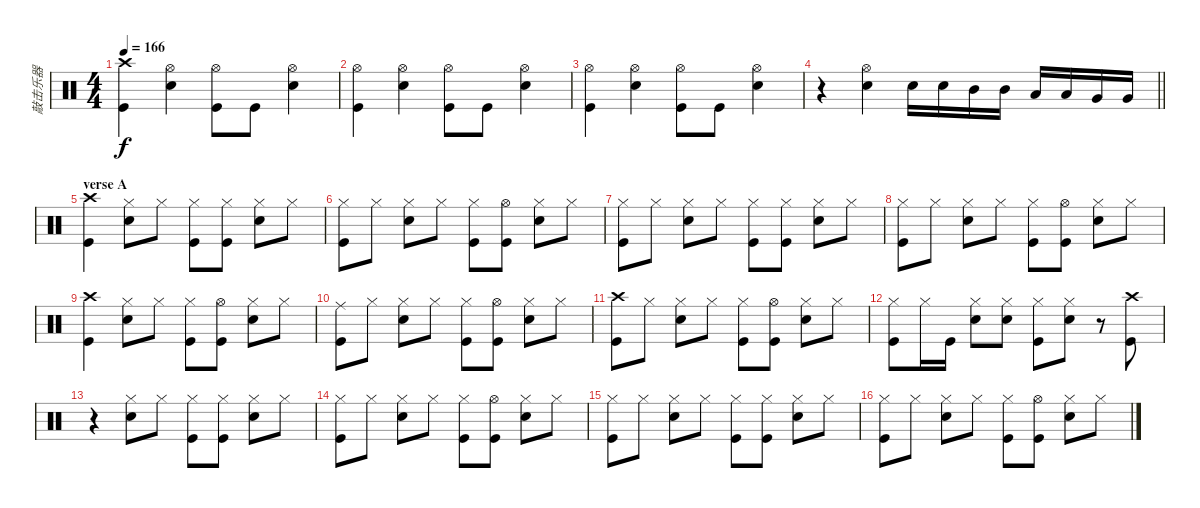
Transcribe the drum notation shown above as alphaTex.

\track ("敲击乐器" "敲击乐器") {instrument percussion}
\staff {score}
\articulation defaults
\ts (4 4)
\tempo 166
\clef neutral
\ks c
("Kick (hit)" "Crash high (hit)").4{dy f} ("Snare (hit) 2" "Hi-Hat (open)").4 ("Kick (hit)" "Hi-Hat (open)").8 "Kick (hit)".8 ("Snare (hit) 2" "Hi-Hat (open)").4 |
("Kick (hit)" "Hi-Hat (open)").4 ("Snare (hit) 2" "Hi-Hat (open)").4 ("Kick (hit)" "Hi-Hat (open)").8 "Kick (hit)".8 ("Snare (hit) 2" "Hi-Hat (open)").4 |
("Kick (hit)" "Hi-Hat (open)").4 ("Snare (hit) 2" "Hi-Hat (open)").4 ("Kick (hit)" "Hi-Hat (open)").8 "Kick (hit)".8 ("Snare (hit) 2" "Hi-Hat (open)").4 |
\barLineRight lightlight
r.4 ("Snare (hit) 2" "Hi-Hat (open)").4 "Snare (hit) 2".16 "Snare (hit) 2".16 "Mid Tom (hit)".16 "Mid Tom (hit)".16 "Low Tom (hit)".16 "Low Tom (hit)".16 "Very Low Tom (hit)".16 "Very Low Tom (hit)".16 |
\section ("" "verse A")
("Crash high (hit)" "Kick (hit)").4 ("Hi-Hat (closed)" "Snare (hit) 2").8 "Hi-Hat (closed)".8 ("Hi-Hat (closed)" "Kick (hit)").8 ("Hi-Hat (closed)" "Kick (hit)").8 ("Hi-Hat (closed)" "Snare (hit) 2").8 "Hi-Hat (closed)".8 |
("Hi-Hat (closed)" "Kick (hit)").8 "Hi-Hat (closed)".8 ("Hi-Hat (closed)" "Snare (hit) 2").8 "Hi-Hat (closed)".8 ("Hi-Hat (closed)" "Kick (hit)").8 ("Hi-Hat (open)" "Kick (hit)").8 ("Hi-Hat (closed)" "Snare (hit) 2").8 "Hi-Hat (closed)".8 |
("Hi-Hat (closed)" "Kick (hit)").8 "Hi-Hat (closed)".8 ("Hi-Hat (closed)" "Snare (hit) 2").8 "Hi-Hat (closed)".8 ("Hi-Hat (closed)" "Kick (hit)").8 ("Hi-Hat (closed)" "Kick (hit)").8 ("Hi-Hat (closed)" "Snare (hit) 2").8 "Hi-Hat (closed)".8 |
("Hi-Hat (closed)" "Kick (hit)").8 "Hi-Hat (closed)".8 ("Hi-Hat (closed)" "Snare (hit) 2").8 "Hi-Hat (closed)".8 ("Hi-Hat (closed)" "Kick (hit)").8 ("Hi-Hat (open)" "Kick (hit)").8 ("Hi-Hat (closed)" "Snare (hit) 2").8 "Hi-Hat (closed)".8 |
("Crash high (hit)" "Kick (hit)").4 ("Hi-Hat (closed)" "Snare (hit) 2").8 "Hi-Hat (closed)".8 ("Hi-Hat (closed)" "Kick (hit)").8 ("Hi-Hat (open)" "Kick (hit)").8 ("Hi-Hat (closed)" "Snare (hit) 2").8 "Hi-Hat (closed)".8 |
("Ride (middle)" "Kick (hit)").8 "Hi-Hat (closed)".8 ("Hi-Hat (closed)" "Snare (hit) 2").8 "Hi-Hat (closed)".8 ("Hi-Hat (closed)" "Kick (hit)").8 ("Hi-Hat (open)" "Kick (hit)").8 ("Hi-Hat (closed)" "Snare (hit) 2").8 "Hi-Hat (closed)".8 |
("Crash high (hit)" "Kick (hit)").8 "Hi-Hat (closed)".8 ("Hi-Hat (closed)" "Snare (hit) 2").8 "Hi-Hat (closed)".8 ("Hi-Hat (closed)" "Kick (hit)").8 ("Hi-Hat (open)" "Kick (hit)").8 ("Hi-Hat (closed)" "Snare (hit) 2").8 "Hi-Hat (closed)".8 |
("Hi-Hat (closed)" "Kick (hit)").8 "Hi-Hat (closed)".16 "Kick (hit)".16 ("Hi-Hat (closed)" "Snare (hit) 2").8 ("Hi-Hat (closed)" "Snare (hit) 2").8 ("Hi-Hat (closed)" "Kick (hit)").8 ("Hi-Hat (closed)" "Snare (hit) 2").8 r.8 ("Crash high (hit)" "Kick (hit)").8 |
r.4 ("Hi-Hat (closed)" "Snare (hit) 2").8 "Hi-Hat (closed)".8 ("Hi-Hat (closed)" "Kick (hit)").8 ("Hi-Hat (closed)" "Kick (hit)").8 ("Hi-Hat (closed)" "Snare (hit) 2").8 "Hi-Hat (closed)".8 |
("Hi-Hat (closed)" "Kick (hit)").8 "Hi-Hat (closed)".8 ("Hi-Hat (closed)" "Snare (hit) 2").8 "Hi-Hat (closed)".8 ("Hi-Hat (closed)" "Kick (hit)").8 ("Hi-Hat (open)" "Kick (hit)").8 ("Hi-Hat (closed)" "Snare (hit) 2").8 "Hi-Hat (closed)".8 |
("Hi-Hat (closed)" "Kick (hit)").8 "Hi-Hat (closed)".8 ("Hi-Hat (closed)" "Snare (hit) 2").8 "Hi-Hat (closed)".8 ("Hi-Hat (closed)" "Kick (hit)").8 ("Hi-Hat (closed)" "Kick (hit)").8 ("Hi-Hat (closed)" "Snare (hit) 2").8 "Hi-Hat (closed)".8 |
("Hi-Hat (closed)" "Kick (hit)").8 "Hi-Hat (closed)".8 ("Hi-Hat (closed)" "Snare (hit) 2").8 "Hi-Hat (closed)".8 ("Hi-Hat (closed)" "Kick (hit)").8 ("Hi-Hat (open)" "Kick (hit)").8 ("Hi-Hat (closed)" "Snare (hit) 2").8 "Hi-Hat (closed)".8
